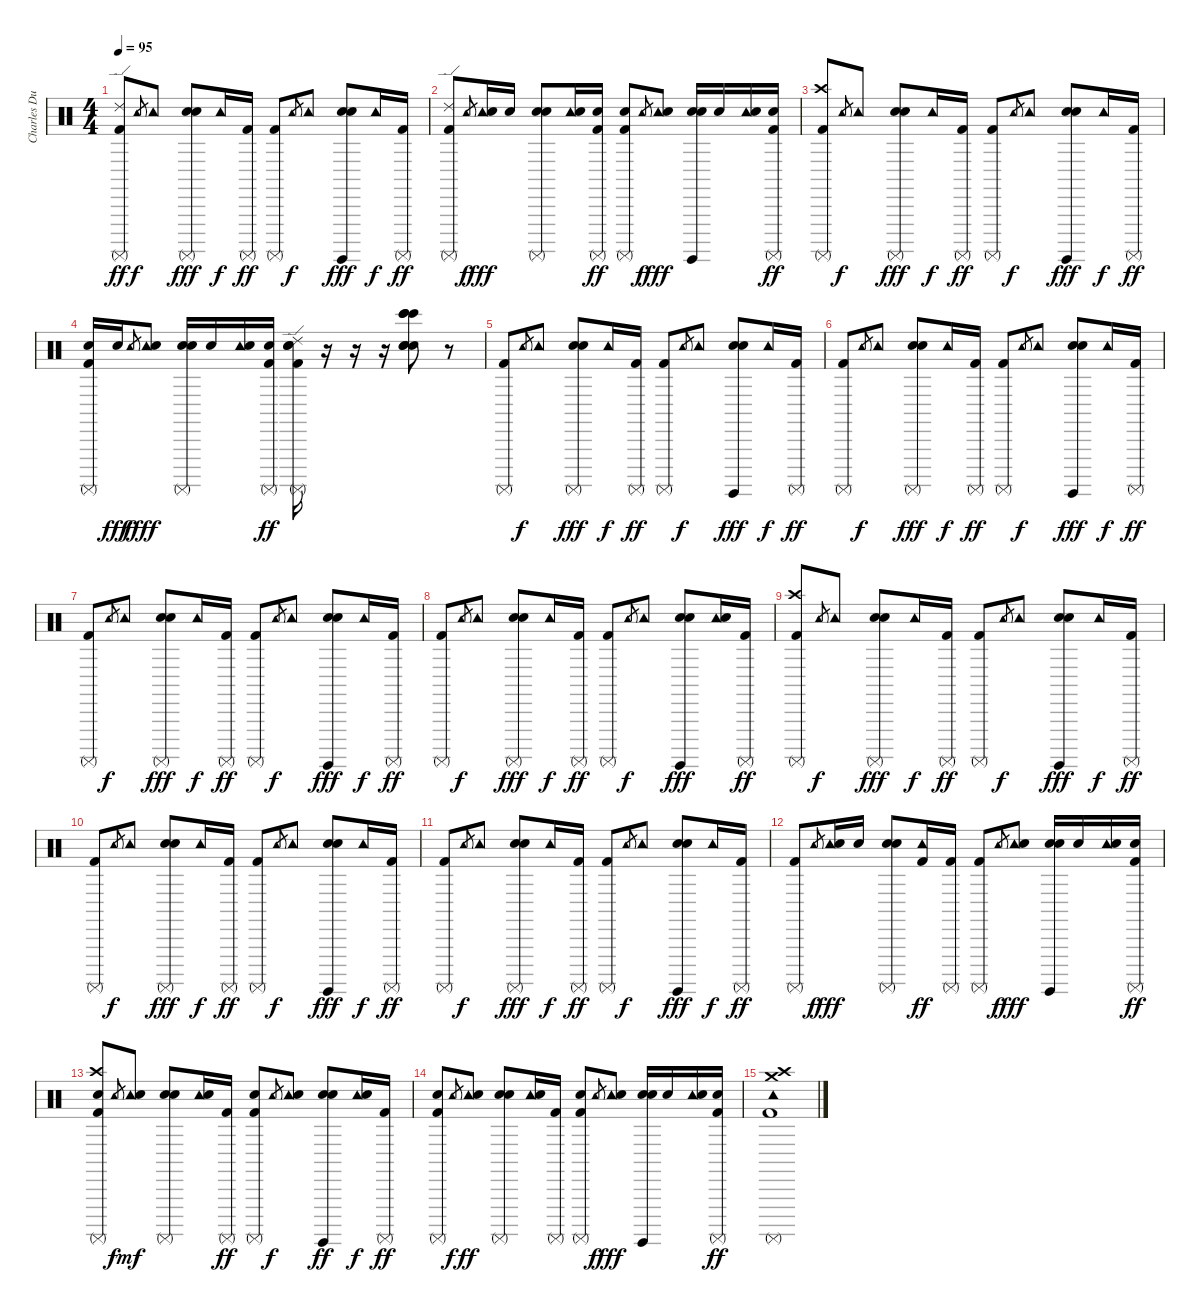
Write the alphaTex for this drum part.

\track ("Charles Dubreuil - Batterie" "Charles Du") {instrument percussion}
\staff {score}
\articulation defaults
\ts (4 4)
\tempo 95
\clef neutral
\ks c
("Ride (edge) 2" "Surdo (mute)" "Kick (hit) 2").8{dy ff} "Tambourine (hit)".8{gr dy f} "Tambourine (hit)".8 ("Hand Clap (hit)" "Electric Snare (hit)" "Surdo (mute)").8{dy fff} "Tambourine (hit)".16{dy f} ("Surdo (mute)" "Kick (hit) 2").16{dy ff} ("Surdo (mute)" "Kick (hit) 2").8 "Tambourine (hit)".8{gr dy f} "Tambourine (hit)".8 ("Hand Clap (hit)" "Electric Snare (hit)" "Surdo (hit)").8{dy fff} "Tambourine (hit)".16{dy f} ("Surdo (mute)" "Kick (hit) 2").16{dy ff} |
("Ride (edge) 2" "Surdo (mute)" "Kick (hit) 2").8 "Tambourine (hit)".8{gr dy f} ("Tambourine (hit)" "Electric Snare (hit)").16{dy fff} "Electric Snare (hit)".16 ("Hand Clap (hit)" "Electric Snare (hit)" "Surdo (mute)").8 ("Tambourine (hit)" "Electric Snare (hit)").16 ("Electric Snare (hit)" "Surdo (mute)" "Kick (hit) 2").16{dy ff} ("Electric Snare (hit)" "Surdo (mute)" "Kick (hit) 2").8 "Tambourine (hit)".8{gr dy f} ("Tambourine (hit)" "Electric Snare (hit)").8{dy fff} ("Hand Clap (hit)" "Electric Snare (hit)" "Surdo (hit)").16 "Electric Snare (hit)".16 ("Tambourine (hit)" "Electric Snare (hit)").16 ("Electric Snare (hit)" "Surdo (mute)" "Kick (hit) 2").16{dy ff} |
("Crash high (hit)" "Surdo (mute)" "Kick (hit) 2").8 "Tambourine (hit)".8{gr dy f} "Tambourine (hit)".8 ("Hand Clap (hit)" "Electric Snare (hit)" "Surdo (mute)").8{dy fff} "Tambourine (hit)".16{dy f} ("Surdo (mute)" "Kick (hit) 2").16{dy ff} ("Surdo (mute)" "Kick (hit) 2").8 "Tambourine (hit)".8{gr dy f} "Tambourine (hit)".8 ("Hand Clap (hit)" "Electric Snare (hit)" "Surdo (hit)").8{dy fff} "Tambourine (hit)".16{dy f} ("Surdo (mute)" "Kick (hit) 2").16{dy ff} |
("Electric Snare (hit)" "Surdo (mute)" "Kick (hit) 2").16 "Electric Snare (hit)".16{dy fff} "Tambourine (hit)".8{gr dy f} ("Tambourine (hit)" "Electric Snare (hit)").8{dy fff} ("Hand Clap (hit)" "Electric Snare (hit)" "Surdo (mute)").16 "Electric Snare (hit)".16 ("Tambourine (hit)" "Electric Snare (hit)").16 ("Electric Snare (hit)" "Surdo (mute)" "Kick (hit) 2").16{dy ff} ("Ride (edge) 2" "Electric Snare (hit)" "Electric Snare (hit)" "Surdo (mute)" "Kick (hit) 2").16 r.16 r.16 r.16 ("Bongo High (hit)" "Bongo High (hit)" "Bongo High (hit)" "Hand Clap (hit)" "Hand Clap (hit)" "Hand Clap (hit)").8 r.8 |
("Surdo (mute)" "Kick (hit) 2").8 "Tambourine (hit)".8{gr dy f} "Tambourine (hit)".8 ("Hand Clap (hit)" "Electric Snare (hit)" "Surdo (mute)").8{dy fff} "Tambourine (hit)".16{dy f} ("Surdo (mute)" "Kick (hit) 2").16{dy ff} ("Surdo (mute)" "Kick (hit) 2").8 "Tambourine (hit)".8{gr dy f} "Tambourine (hit)".8 ("Hand Clap (hit)" "Electric Snare (hit)" "Surdo (hit)").8{dy fff} "Tambourine (hit)".16{dy f} ("Surdo (mute)" "Kick (hit) 2").16{dy ff} |
("Surdo (mute)" "Kick (hit) 2").8 "Tambourine (hit)".8{gr dy f} "Tambourine (hit)".8 ("Hand Clap (hit)" "Electric Snare (hit)" "Surdo (mute)").8{dy fff} "Tambourine (hit)".16{dy f} ("Surdo (mute)" "Kick (hit) 2").16{dy ff} ("Surdo (mute)" "Kick (hit) 2").8 "Tambourine (hit)".8{gr dy f} "Tambourine (hit)".8 ("Hand Clap (hit)" "Electric Snare (hit)" "Surdo (hit)").8{dy fff} "Tambourine (hit)".16{dy f} ("Surdo (mute)" "Kick (hit) 2").16{dy ff} |
("Surdo (mute)" "Kick (hit) 2").8 "Tambourine (hit)".8{gr dy f} "Tambourine (hit)".8 ("Hand Clap (hit)" "Electric Snare (hit)" "Surdo (mute)").8{dy fff} "Tambourine (hit)".16{dy f} ("Surdo (mute)" "Kick (hit) 2").16{dy ff} ("Surdo (mute)" "Kick (hit) 2").8 "Tambourine (hit)".8{gr dy f} "Tambourine (hit)".8 ("Hand Clap (hit)" "Electric Snare (hit)" "Surdo (hit)").8{dy fff} "Tambourine (hit)".16{dy f} ("Surdo (mute)" "Kick (hit) 2").16{dy ff} |
("Surdo (mute)" "Kick (hit) 2").8 "Tambourine (hit)".8{gr dy f} "Tambourine (hit)".8 ("Hand Clap (hit)" "Electric Snare (hit)" "Surdo (mute)").8{dy fff} "Tambourine (hit)".16{dy f} ("Surdo (mute)" "Kick (hit) 2").16{dy ff} ("Surdo (mute)" "Kick (hit) 2").8 "Tambourine (hit)".8{gr dy f} "Tambourine (hit)".8 ("Hand Clap (hit)" "Electric Snare (hit)" "Surdo (hit)").8{dy fff} ("Tambourine (hit)" "Electric Snare (hit)").16 ("Surdo (mute)" "Kick (hit) 2").16{dy ff} |
("Crash high (hit)" "Surdo (mute)" "Kick (hit) 2").8 "Tambourine (hit)".8{gr dy f} "Tambourine (hit)".8 ("Hand Clap (hit)" "Electric Snare (hit)" "Surdo (mute)").8{dy fff} "Tambourine (hit)".16{dy f} ("Surdo (mute)" "Kick (hit) 2").16{dy ff} ("Surdo (mute)" "Kick (hit) 2").8 "Tambourine (hit)".8{gr dy f} "Tambourine (hit)".8 ("Hand Clap (hit)" "Electric Snare (hit)" "Surdo (hit)").8{dy fff} "Tambourine (hit)".16{dy f} ("Surdo (mute)" "Kick (hit) 2").16{dy ff} |
("Surdo (mute)" "Kick (hit) 2").8 "Tambourine (hit)".8{gr dy f} "Tambourine (hit)".8 ("Hand Clap (hit)" "Electric Snare (hit)" "Surdo (mute)").8{dy fff} "Tambourine (hit)".16{dy f} ("Surdo (mute)" "Kick (hit) 2").16{dy ff} ("Surdo (mute)" "Kick (hit) 2").8 "Tambourine (hit)".8{gr dy f} "Tambourine (hit)".8 ("Hand Clap (hit)" "Electric Snare (hit)" "Surdo (hit)").8{dy fff} "Tambourine (hit)".16{dy f} ("Surdo (mute)" "Kick (hit) 2").16{dy ff} |
("Surdo (mute)" "Kick (hit) 2").8 "Tambourine (hit)".8{gr dy f} "Tambourine (hit)".8 ("Hand Clap (hit)" "Electric Snare (hit)" "Surdo (mute)").8{dy fff} "Tambourine (hit)".16{dy f} ("Surdo (mute)" "Kick (hit) 2").16{dy ff} ("Surdo (mute)" "Kick (hit) 2").8 "Tambourine (hit)".8{gr dy f} "Tambourine (hit)".8 ("Hand Clap (hit)" "Electric Snare (hit)" "Surdo (hit)").8{dy fff} "Tambourine (hit)".16{dy f} ("Surdo (mute)" "Kick (hit) 2").16{dy ff} |
("Surdo (mute)" "Kick (hit) 2").8 "Tambourine (hit)".8{gr dy f} ("Tambourine (hit)" "Electric Snare (hit)").16{dy fff} "Electric Snare (hit)".16 ("Hand Clap (hit)" "Electric Snare (hit)" "Surdo (mute)").8 ("Tambourine (hit)" "Kick (hit) 2").16{dy ff} ("Surdo (mute)" "Kick (hit) 2").16 ("Surdo (mute)" "Kick (hit) 2").8 "Tambourine (hit)".8{gr dy f} ("Tambourine (hit)" "Electric Snare (hit)").8{dy fff} ("Hand Clap (hit)" "Electric Snare (hit)" "Surdo (hit)").16 "Electric Snare (hit)".16 ("Tambourine (hit)" "Electric Snare (hit)").16 ("Electric Snare (hit)" "Surdo (mute)" "Kick (hit) 2").16{dy ff} |
("Crash high (hit)" "Electric Snare (hit)" "Surdo (mute)" "Kick (hit) 2").8 "Tambourine (hit)".8{gr dy f} ("Tambourine (hit)" "Electric Snare (hit)").8{dy mf} ("Hand Clap (hit)" "Electric Snare (hit)" "Surdo (mute)").8 ("Tambourine (hit)" "Electric Snare (hit)").16 ("Surdo (mute)" "Kick (hit) 2").16{dy ff} ("Electric Snare (hit)" "Surdo (mute)" "Kick (hit) 2").8 "Tambourine (hit)".8{gr dy f} ("Tambourine (hit)" "Electric Snare (hit)").8 ("Hand Clap (hit)" "Electric Snare (hit)" "Surdo (hit)").8{dy ff} ("Tambourine (hit)" "Electric Snare (hit)").16{dy f} ("Surdo (mute)" "Kick (hit) 2").16{dy ff} |
("Electric Snare (hit)" "Surdo (mute)" "Kick (hit) 2").8 "Tambourine (hit)".8{gr dy f} ("Tambourine (hit)" "Electric Snare (hit)").8{dy ff} ("Hand Clap (hit)" "Electric Snare (hit)" "Surdo (mute)").8 ("Tambourine (hit)" "Electric Snare (hit)").16 ("Surdo (mute)" "Kick (hit) 2").16 ("Electric Snare (hit)" "Surdo (mute)" "Kick (hit) 2").8 "Tambourine (hit)".8{gr dy f} ("Tambourine (hit)" "Electric Snare (hit)").8{dy fff} ("Hand Clap (hit)" "Electric Snare (hit)" "Surdo (hit)").16 "Electric Snare (hit)".16 ("Tambourine (hit)" "Electric Snare (hit)").16 ("Electric Snare (hit)" "Surdo (mute)" "Kick (hit) 2").16{dy ff} |
("Crash medium (hit)" "Crash high (hit)" "Tambourine (hit)" "Surdo (mute)" "Kick (hit) 2").1
